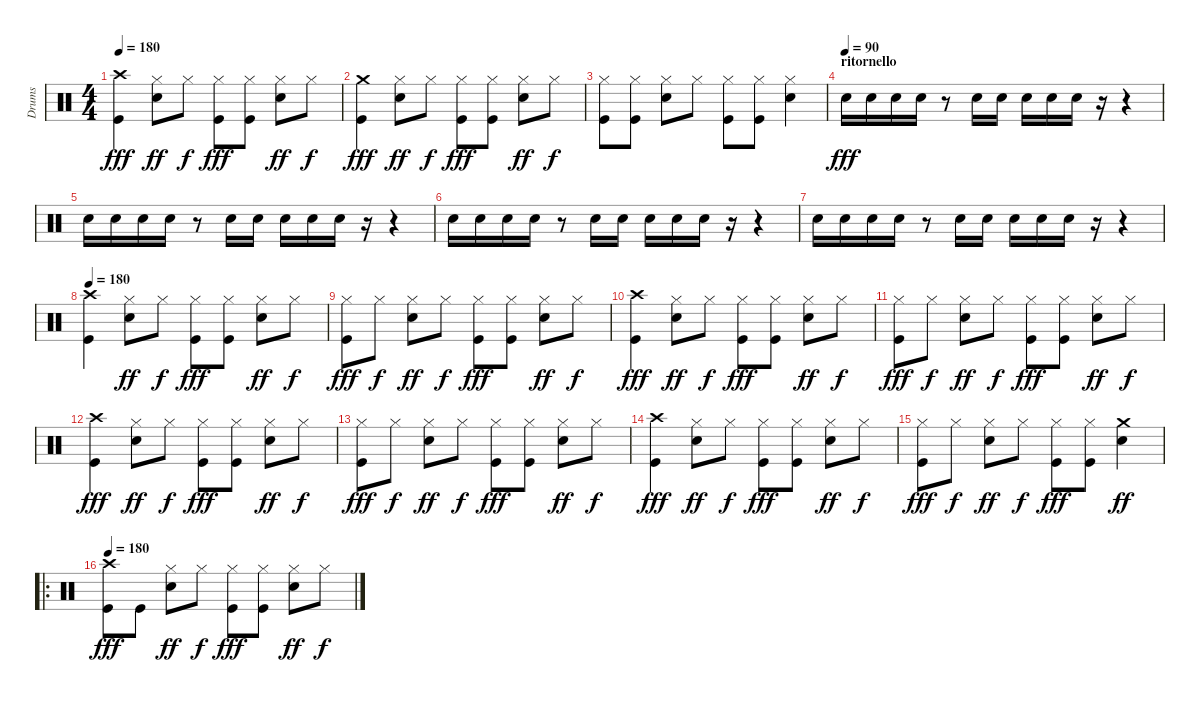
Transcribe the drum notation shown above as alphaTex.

\track ("Drums" "Drums") {instrument percussion}
\staff {score}
\articulation defaults
\ts (4 4)
\tempo 180
\clef neutral
\ks aminor
("Crash high (hit)" "Kick (hit)").4{dy fff} ("Hi-Hat (closed)" "Snare (hit) 2").8{dy ff} "Hi-Hat (closed)".8{dy f} ("Hi-Hat (closed)" "Kick (hit)").8{dy fff} ("Hi-Hat (closed)" "Kick (hit)").8 ("Hi-Hat (closed)" "Snare (hit) 2").8{dy ff} "Hi-Hat (closed)".8{dy f} |
("Crash medium (hit)" "Kick (hit)").4{dy fff} ("Hi-Hat (closed)" "Snare (hit) 2").8{dy ff} "Hi-Hat (closed)".8{dy f} ("Hi-Hat (closed)" "Kick (hit)").8{dy fff} ("Hi-Hat (closed)" "Kick (hit)").8 ("Hi-Hat (closed)" "Snare (hit) 2").8{dy ff} "Hi-Hat (closed)".8{dy f} |
("Hi-Hat (closed)" "Kick (hit)").8 ("Hi-Hat (closed)" "Kick (hit)").8 ("Hi-Hat (closed)" "Snare (hit) 2").8 "Hi-Hat (closed)".8 ("Hi-Hat (closed)" "Kick (hit)").8 ("Hi-Hat (closed)" "Kick (hit)").8 ("Hi-Hat (closed)" "Snare (hit) 2").4 |
\section ("" "ritornello")
\tempo (90)
"Snare (hit) 2".16{dy fff} "Snare (hit) 2".16 "Snare (hit) 2".16 "Snare (hit) 2".16 r.8 "Snare (hit) 2".16 "Snare (hit) 2".16 "Snare (hit) 2".16 "Snare (hit) 2".16 "Snare (hit) 2".16 r.16 r.4 |
"Snare (hit) 2".16 "Snare (hit) 2".16 "Snare (hit) 2".16 "Snare (hit) 2".16 r.8 "Snare (hit) 2".16 "Snare (hit) 2".16 "Snare (hit) 2".16 "Snare (hit) 2".16 "Snare (hit) 2".16 r.16 r.4 |
"Snare (hit) 2".16 "Snare (hit) 2".16 "Snare (hit) 2".16 "Snare (hit) 2".16 r.8 "Snare (hit) 2".16 "Snare (hit) 2".16 "Snare (hit) 2".16 "Snare (hit) 2".16 "Snare (hit) 2".16 r.16 r.4 |
"Snare (hit) 2".16 "Snare (hit) 2".16 "Snare (hit) 2".16 "Snare (hit) 2".16 r.8 "Snare (hit) 2".16 "Snare (hit) 2".16 "Snare (hit) 2".16 "Snare (hit) 2".16 "Snare (hit) 2".16 r.16 r.4 |
\tempo 180
("Crash high (hit)" "Kick (hit)").4 ("Hi-Hat (closed)" "Snare (hit) 2").8{dy ff} "Hi-Hat (closed)".8{dy f} ("Hi-Hat (closed)" "Kick (hit)").8{dy fff} ("Hi-Hat (closed)" "Kick (hit)").8 ("Hi-Hat (closed)" "Snare (hit) 2").8{dy ff} "Hi-Hat (closed)".8{dy f} |
("Hi-Hat (closed)" "Kick (hit)").8{dy fff} "Hi-Hat (closed)".8{dy f} ("Hi-Hat (closed)" "Snare (hit) 2").8{dy ff} "Hi-Hat (closed)".8{dy f} ("Hi-Hat (closed)" "Kick (hit)").8{dy fff} ("Hi-Hat (closed)" "Kick (hit)").8 ("Hi-Hat (closed)" "Snare (hit) 2").8{dy ff} "Hi-Hat (closed)".8{dy f} |
("Crash high (hit)" "Kick (hit)").4{dy fff} ("Hi-Hat (closed)" "Snare (hit) 2").8{dy ff} "Hi-Hat (closed)".8{dy f} ("Hi-Hat (closed)" "Kick (hit)").8{dy fff} ("Hi-Hat (closed)" "Kick (hit)").8 ("Hi-Hat (closed)" "Snare (hit) 2").8{dy ff} "Hi-Hat (closed)".8{dy f} |
("Hi-Hat (closed)" "Kick (hit)").8{dy fff} "Hi-Hat (closed)".8{dy f} ("Hi-Hat (closed)" "Snare (hit) 2").8{dy ff} "Hi-Hat (closed)".8{dy f} ("Hi-Hat (closed)" "Kick (hit)").8{dy fff} ("Hi-Hat (closed)" "Kick (hit)").8 ("Hi-Hat (closed)" "Snare (hit) 2").8{dy ff} "Hi-Hat (closed)".8{dy f} |
("Crash high (hit)" "Kick (hit)").4{dy fff} ("Hi-Hat (closed)" "Snare (hit) 2").8{dy ff} "Hi-Hat (closed)".8{dy f} ("Hi-Hat (closed)" "Kick (hit)").8{dy fff} ("Hi-Hat (closed)" "Kick (hit)").8 ("Hi-Hat (closed)" "Snare (hit) 2").8{dy ff} "Hi-Hat (closed)".8{dy f} |
("Hi-Hat (closed)" "Kick (hit)").8{dy fff} "Hi-Hat (closed)".8{dy f} ("Hi-Hat (closed)" "Snare (hit) 2").8{dy ff} "Hi-Hat (closed)".8{dy f} ("Hi-Hat (closed)" "Kick (hit)").8{dy fff} ("Hi-Hat (closed)" "Kick (hit)").8 ("Hi-Hat (closed)" "Snare (hit) 2").8{dy ff} "Hi-Hat (closed)".8{dy f} |
("Crash high (hit)" "Kick (hit)").4{dy fff} ("Hi-Hat (closed)" "Snare (hit) 2").8{dy ff} "Hi-Hat (closed)".8{dy f} ("Hi-Hat (closed)" "Kick (hit)").8{dy fff} ("Hi-Hat (closed)" "Kick (hit)").8 ("Hi-Hat (closed)" "Snare (hit) 2").8{dy ff} "Hi-Hat (closed)".8{dy f} |
("Hi-Hat (closed)" "Kick (hit)").8{dy fff} "Hi-Hat (closed)".8{dy f} ("Hi-Hat (closed)" "Snare (hit) 2").8{dy ff} "Hi-Hat (closed)".8{dy f} ("Hi-Hat (closed)" "Kick (hit)").8{dy fff} ("Hi-Hat (closed)" "Kick (hit)").8 ("Crash medium (hit)" "Snare (hit) 2").4{dy ff} |
\ro
\tempo 180
("Crash high (hit)" "Kick (hit)").8{dy fff} "Kick (hit)".8 ("Hi-Hat (closed)" "Snare (hit) 2").8{dy ff} "Hi-Hat (closed)".8{dy f} ("Hi-Hat (closed)" "Kick (hit)").8{dy fff} ("Hi-Hat (closed)" "Kick (hit)").8 ("Hi-Hat (closed)" "Snare (hit) 2").8{dy ff} "Hi-Hat (closed)".8{dy f}
